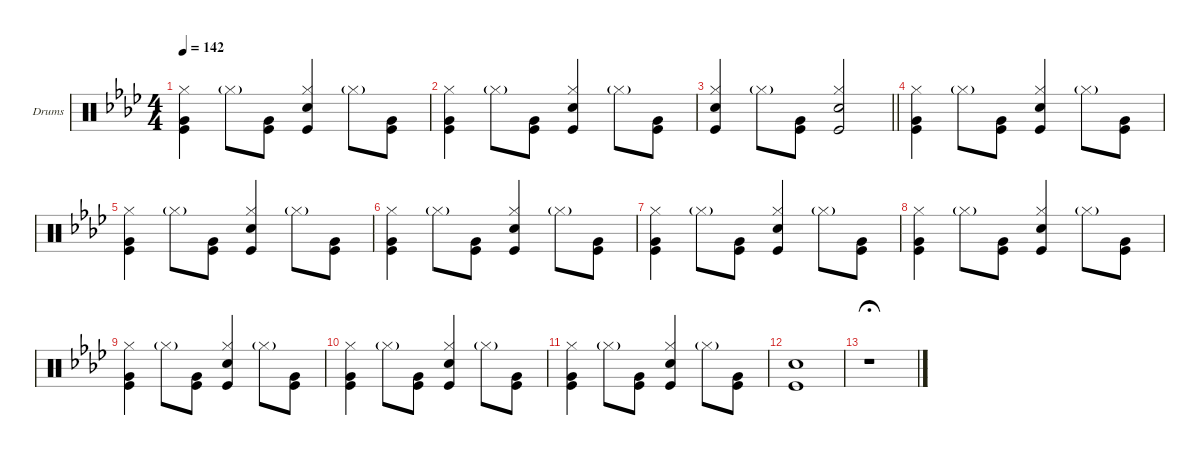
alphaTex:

\defaultSystemsLayout 4
\hideDynamics
\bracketExtendMode groupsimilarinstruments
\firstSystemTrackNameOrientation horizontal
\otherSystemsTrackNameOrientation horizontal
\track ("Drumkit" "Drums") {multiBarRest instrument percussion}
\staff {score}
\articulation defaults
\ts (4 4)
\tempo 142
\clef neutral
\ks ab
("Very Low Tom (hit)" "Kick (hit)" "Hi-Hat (closed)").4{dy fff} "Hi-Hat (closed)"{g}.8 ("Very Low Tom (hit)" "Kick (hit)").8 ("Snare (hit) 2" "Kick (hit)" "Hi-Hat (closed)").4 "Hi-Hat (closed)"{g}.8 ("Very Low Tom (hit)" "Kick (hit)").8 |
("Very Low Tom (hit)" "Kick (hit)" "Hi-Hat (closed)").4 "Hi-Hat (closed)"{g}.8 ("Very Low Tom (hit)" "Kick (hit)").8 ("Snare (hit) 2" "Kick (hit)" "Hi-Hat (closed)").4 "Hi-Hat (closed)"{g}.8 ("Very Low Tom (hit)" "Kick (hit)").8 |
\barLineRight lightlight
("Snare (hit) 2" "Kick (hit)" "Hi-Hat (closed)").4 "Hi-Hat (closed)"{g}.8 ("Very Low Tom (hit)" "Kick (hit)").8 ("Snare (hit) 2" "Kick (hit)" "Hi-Hat (closed)").2 |
("Very Low Tom (hit)" "Kick (hit)" "Hi-Hat (closed)").4 "Hi-Hat (closed)"{g}.8 ("Very Low Tom (hit)" "Kick (hit)").8 ("Snare (hit) 2" "Kick (hit)" "Hi-Hat (closed)").4 "Hi-Hat (closed)"{g}.8 ("Very Low Tom (hit)" "Kick (hit)").8 |
("Very Low Tom (hit)" "Kick (hit)" "Hi-Hat (closed)").4 "Hi-Hat (closed)"{g}.8 ("Very Low Tom (hit)" "Kick (hit)").8 ("Snare (hit) 2" "Kick (hit)" "Hi-Hat (closed)").4 "Hi-Hat (closed)"{g}.8 ("Very Low Tom (hit)" "Kick (hit)").8 |
("Very Low Tom (hit)" "Kick (hit)" "Hi-Hat (closed)").4 "Hi-Hat (closed)"{g}.8 ("Very Low Tom (hit)" "Kick (hit)").8 ("Snare (hit) 2" "Kick (hit)" "Hi-Hat (closed)").4 "Hi-Hat (closed)"{g}.8 ("Very Low Tom (hit)" "Kick (hit)").8 |
("Very Low Tom (hit)" "Kick (hit)" "Hi-Hat (closed)").4 "Hi-Hat (closed)"{g}.8 ("Very Low Tom (hit)" "Kick (hit)").8 ("Snare (hit) 2" "Kick (hit)" "Hi-Hat (closed)").4 "Hi-Hat (closed)"{g}.8 ("Very Low Tom (hit)" "Kick (hit)").8 |
\scale
0.258838 ("Very Low Tom (hit)" "Kick (hit)" "Hi-Hat (closed)").4 "Hi-Hat (closed)"{g}.8 ("Very Low Tom (hit)" "Kick (hit)").8 ("Snare (hit) 2" "Kick (hit)" "Hi-Hat (closed)").4 "Hi-Hat (closed)"{g}.8 ("Very Low Tom (hit)" "Kick (hit)").8 |
\scale
0.205808 ("Very Low Tom (hit)" "Kick (hit)" "Hi-Hat (closed)").4 "Hi-Hat (closed)"{g}.8 ("Very Low Tom (hit)" "Kick (hit)").8 ("Snare (hit) 2" "Kick (hit)" "Hi-Hat (closed)").4 "Hi-Hat (closed)"{g}.8 ("Very Low Tom (hit)" "Kick (hit)").8 |
\scale
0.205808 ("Very Low Tom (hit)" "Kick (hit)" "Hi-Hat (closed)").4 "Hi-Hat (closed)"{g}.8 ("Very Low Tom (hit)" "Kick (hit)").8 ("Snare (hit) 2" "Kick (hit)" "Hi-Hat (closed)").4 "Hi-Hat (closed)"{g}.8 ("Very Low Tom (hit)" "Kick (hit)").8 |
\scale
0.205808 ("Very Low Tom (hit)" "Kick (hit)" "Hi-Hat (closed)").4 "Hi-Hat (closed)"{g}.8 ("Very Low Tom (hit)" "Kick (hit)").8 ("Snare (hit) 2" "Kick (hit)" "Hi-Hat (closed)").4 "Hi-Hat (closed)"{g}.8 ("Very Low Tom (hit)" "Kick (hit)").8 |
\scale
0.0618687 ("Snare (hit) 2" "Kick (hit)").1 |
\scale
0.0618687 r.1{fermata (medium 0.5)}
